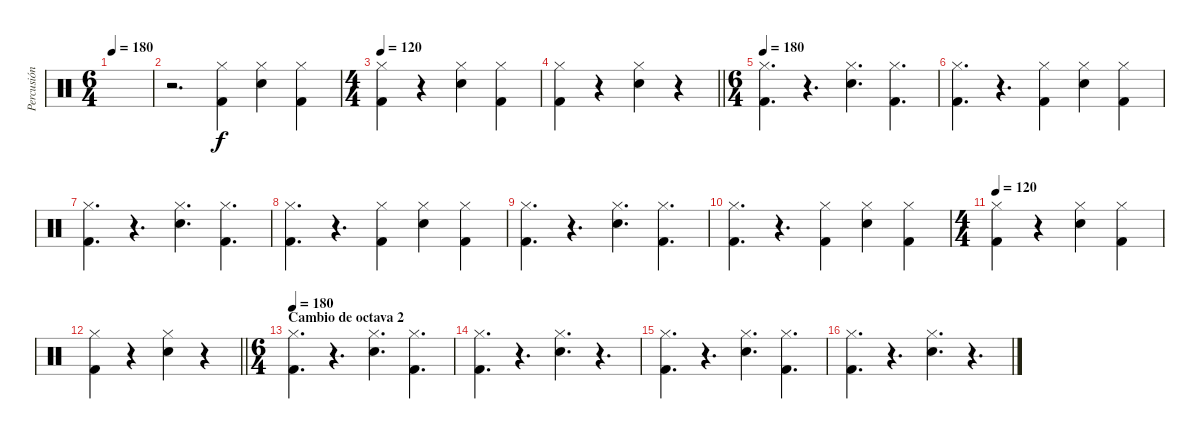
\track ("Percusión" "Percusión") {instrument percussion}
\staff {score}
\articulation defaults
\ts (6 4)
\tempo 180
\clef neutral
\ks c
|
r.2{d} ("Hi-Hat (closed)" "Kick (hit) 2").4 ("Hi-Hat (closed)" "Snare (hit) 2").4 ("Hi-Hat (closed)" "Kick (hit) 2").4 |
\ts (4 4)
\tempo 120
("Hi-Hat (closed)" "Kick (hit) 2").4 r.4 ("Hi-Hat (closed)" "Snare (hit) 2").4 ("Hi-Hat (closed)" "Kick (hit) 2").4 |
\barLineRight lightlight
("Hi-Hat (closed)" "Kick (hit) 2").4 r.4 ("Hi-Hat (closed)" "Snare (hit) 2").4 r.4 |
\ts (6 4)
\tempo 180
("Hi-Hat (closed)" "Kick (hit) 2").4{d} r.4{d} ("Hi-Hat (closed)" "Snare (hit) 2").4{d} ("Hi-Hat (closed)" "Kick (hit) 2").4{d} |
("Hi-Hat (closed)" "Kick (hit) 2").4{d} r.4{d} ("Hi-Hat (closed)" "Kick (hit) 2").4 ("Hi-Hat (closed)" "Snare (hit) 2").4 ("Hi-Hat (closed)" "Kick (hit) 2").4 |
("Hi-Hat (closed)" "Kick (hit) 2").4{d} r.4{d} ("Hi-Hat (closed)" "Snare (hit) 2").4{d} ("Hi-Hat (closed)" "Kick (hit) 2").4{d} |
("Hi-Hat (closed)" "Kick (hit) 2").4{d} r.4{d} ("Hi-Hat (closed)" "Kick (hit) 2").4 ("Hi-Hat (closed)" "Snare (hit) 2").4 ("Hi-Hat (closed)" "Kick (hit) 2").4 |
("Hi-Hat (closed)" "Kick (hit) 2").4{d} r.4{d} ("Hi-Hat (closed)" "Snare (hit) 2").4{d} ("Hi-Hat (closed)" "Kick (hit) 2").4{d} |
("Hi-Hat (closed)" "Kick (hit) 2").4{d} r.4{d} ("Hi-Hat (closed)" "Kick (hit) 2").4 ("Hi-Hat (closed)" "Snare (hit) 2").4 ("Hi-Hat (closed)" "Kick (hit) 2").4 |
\ts (4 4)
\tempo 120
("Hi-Hat (closed)" "Kick (hit) 2").4 r.4 ("Hi-Hat (closed)" "Snare (hit) 2").4 ("Hi-Hat (closed)" "Kick (hit) 2").4 |
\barLineRight lightlight
("Hi-Hat (closed)" "Kick (hit) 2").4 r.4 ("Hi-Hat (closed)" "Snare (hit) 2").4 r.4 |
\ts (6 4)
\section ("" "Cambio de octava 2")
\tempo 180
("Hi-Hat (closed)" "Kick (hit) 2").4{d} r.4{d} ("Hi-Hat (closed)" "Snare (hit) 2").4{d} ("Hi-Hat (closed)" "Kick (hit) 2").4{d} |
("Hi-Hat (closed)" "Kick (hit) 2").4{d} r.4{d} ("Hi-Hat (closed)" "Snare (hit) 2").4{d} r.4{d} |
("Hi-Hat (closed)" "Kick (hit) 2").4{d} r.4{d} ("Hi-Hat (closed)" "Snare (hit) 2").4{d} ("Hi-Hat (closed)" "Kick (hit) 2").4{d} |
("Hi-Hat (closed)" "Kick (hit) 2").4{d} r.4{d} ("Hi-Hat (closed)" "Snare (hit) 2").4{d} r.4{d}
